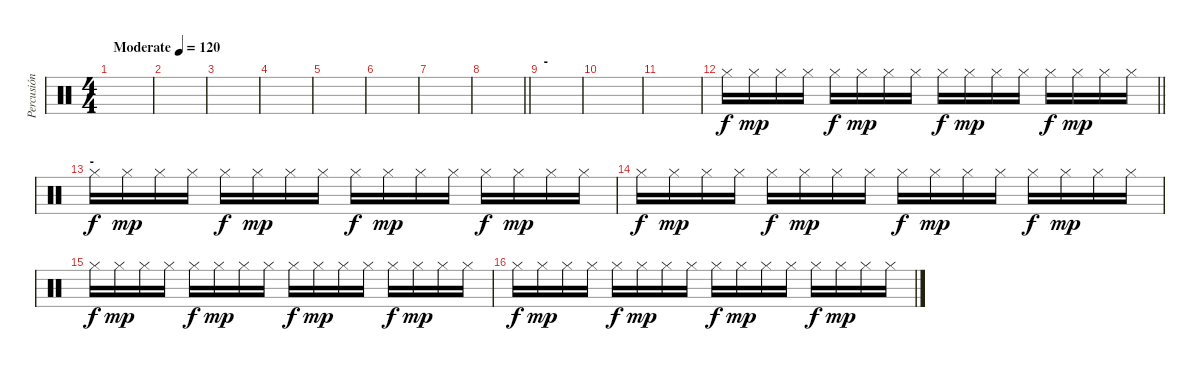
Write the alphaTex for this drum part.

\track ("Percusión" "Percusión") {instrument percussion}
\staff {score}
\articulation defaults
\ts (4 4)
\tempo (120 "Moderate")
\clef neutral
\ks c
|
|
|
|
|
|
|
\barLineRight lightlight
|
\section ("" "-")
|
|
|
\barLineRight lightlight "Hi-Hat (closed)".16 "Hi-Hat (closed)".16{dy mp} "Hi-Hat (closed)".16 "Hi-Hat (closed)".16 "Hi-Hat (closed)".16{dy f} "Hi-Hat (closed)".16{dy mp} "Hi-Hat (closed)".16 "Hi-Hat (closed)".16 "Hi-Hat (closed)".16{dy f} "Hi-Hat (closed)".16{dy mp} "Hi-Hat (closed)".16 "Hi-Hat (closed)".16 "Hi-Hat (closed)".16{dy f} "Hi-Hat (closed)".16{dy mp} "Hi-Hat (closed)".16 "Hi-Hat (closed)".16
|
\section ("" "-")
"Hi-Hat (closed)".16{dy f} "Hi-Hat (closed)".16{dy mp} "Hi-Hat (closed)".16 "Hi-Hat (closed)".16 "Hi-Hat (closed)".16{dy f} "Hi-Hat (closed)".16{dy mp} "Hi-Hat (closed)".16 "Hi-Hat (closed)".16 "Hi-Hat (closed)".16{dy f} "Hi-Hat (closed)".16{dy mp} "Hi-Hat (closed)".16 "Hi-Hat (closed)".16 "Hi-Hat (closed)".16{dy f} "Hi-Hat (closed)".16{dy mp} "Hi-Hat (closed)".16 "Hi-Hat (closed)".16 |
"Hi-Hat (closed)".16{dy f} "Hi-Hat (closed)".16{dy mp} "Hi-Hat (closed)".16 "Hi-Hat (closed)".16 "Hi-Hat (closed)".16{dy f} "Hi-Hat (closed)".16{dy mp} "Hi-Hat (closed)".16 "Hi-Hat (closed)".16 "Hi-Hat (closed)".16{dy f} "Hi-Hat (closed)".16{dy mp} "Hi-Hat (closed)".16 "Hi-Hat (closed)".16 "Hi-Hat (closed)".16{dy f} "Hi-Hat (closed)".16{dy mp} "Hi-Hat (closed)".16 "Hi-Hat (closed)".16 |
"Hi-Hat (closed)".16{dy f} "Hi-Hat (closed)".16{dy mp} "Hi-Hat (closed)".16 "Hi-Hat (closed)".16 "Hi-Hat (closed)".16{dy f} "Hi-Hat (closed)".16{dy mp} "Hi-Hat (closed)".16 "Hi-Hat (closed)".16 "Hi-Hat (closed)".16{dy f} "Hi-Hat (closed)".16{dy mp} "Hi-Hat (closed)".16 "Hi-Hat (closed)".16 "Hi-Hat (closed)".16{dy f} "Hi-Hat (closed)".16{dy mp} "Hi-Hat (closed)".16 "Hi-Hat (closed)".16 |
"Hi-Hat (closed)".16{dy f} "Hi-Hat (closed)".16{dy mp} "Hi-Hat (closed)".16 "Hi-Hat (closed)".16 "Hi-Hat (closed)".16{dy f} "Hi-Hat (closed)".16{dy mp} "Hi-Hat (closed)".16 "Hi-Hat (closed)".16 "Hi-Hat (closed)".16{dy f} "Hi-Hat (closed)".16{dy mp} "Hi-Hat (closed)".16 "Hi-Hat (closed)".16 "Hi-Hat (closed)".16{dy f} "Hi-Hat (closed)".16{dy mp} "Hi-Hat (closed)".16 "Hi-Hat (closed)".16
